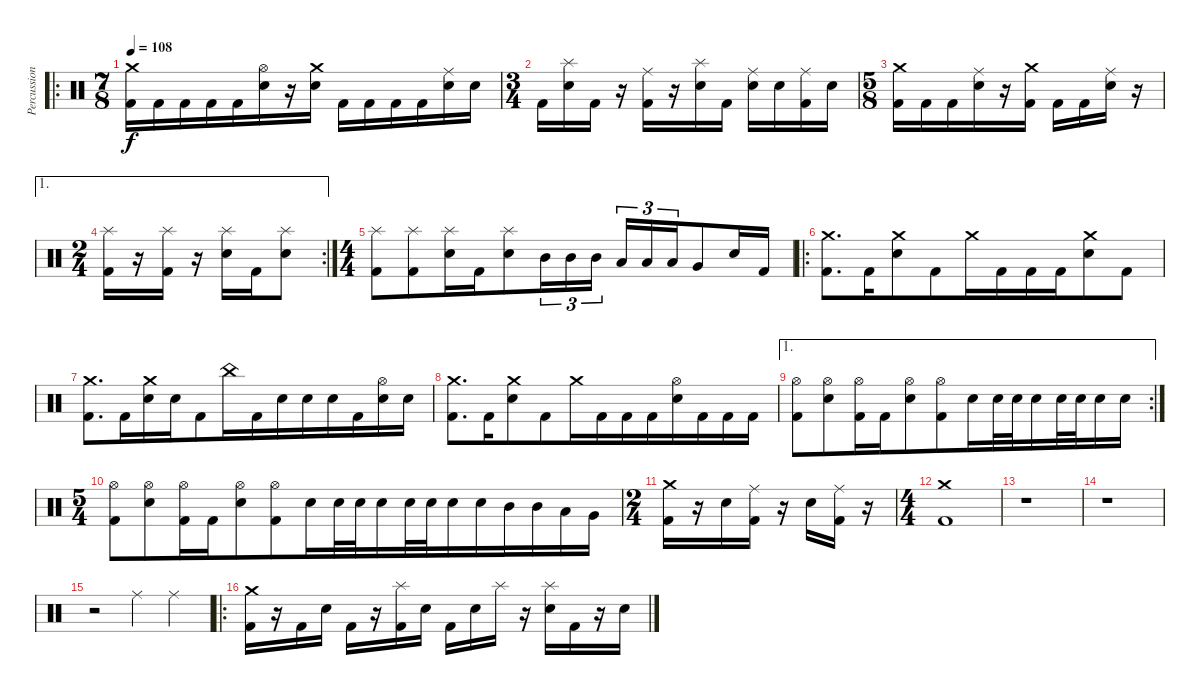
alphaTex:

\track ("Percussion" "Percussion") {instrument percussion}
\staff {score}
\articulation defaults
\ro
\ts (7 8)
\tempo 108
\clef neutral
\ks c
("Crash medium (hit)" "Kick (hit) 2").16{dy f} "Kick (hit) 2".16 "Kick (hit) 2".16 "Kick (hit) 2".16 "Kick (hit) 2".16 ("Hi-Hat (open)" "Snare (hit) 2").16 r.16 ("Crash medium (hit)" "Snare (hit) 2").16 "Kick (hit) 2".16 "Kick (hit) 2".16 "Kick (hit) 2".16 "Kick (hit) 2".16 ("Ride (middle)" "Snare (hit) 2").16 "Snare (hit) 2".16 |
\ts (3 4)
"Kick (hit) 2".16 ("Splash (hit)" "Snare (hit) 2").16 "Kick (hit) 2".16 r.16 ("Ride (middle)" "Kick (hit) 2").16 r.16 ("Splash (hit)" "Snare (hit) 2").16 "Kick (hit) 2".16 ("Ride (middle)" "Snare (hit) 2").16 "Snare (hit) 2".16 ("Ride (middle)" "Kick (hit) 2").16 "Snare (hit) 2".16 |
\ts (5 8)
("Crash medium (hit)" "Kick (hit) 2").16 "Kick (hit) 2".16 "Kick (hit) 2".16 ("Ride (middle)" "Snare (hit) 2").16 r.16 ("Crash medium (hit)" "Kick (hit) 2").16 "Kick (hit) 2".16 "Kick (hit) 2".16 ("Ride (middle)" "Snare (hit) 2").16 r.16 |
\ae 1
\rc 2
\ts (2 4)
("Splash (hit)" "Kick (hit) 2").16 r.16 ("Splash (hit)" "Kick (hit) 2").16 r.16 ("Splash (hit)" "Snare (hit) 2").16 "Kick (hit) 2".16 ("Splash (hit)" "Snare (hit) 2").8 |
\ts (4 4)
("Splash (hit)" "Kick (hit) 2").8 ("Splash (hit)" "Kick (hit) 2").8{beam merge} ("Splash (hit)" "Snare (hit) 2").16 "Kick (hit) 2".16 ("Splash (hit)" "Snare (hit) 2").8{beam merge} "Mid Tom (hit)".16{tu (3 2)} "Mid Tom (hit)".16{tu (3 2)} "Mid Tom (hit)".16{tu (3 2) beam splitsecondary} "Low Tom (hit)".16{tu (3 2)} "Low Tom (hit)".16{tu (3 2)} "Low Tom (hit)".16{tu (3 2) beam merge} "Very Low Tom (hit)".8 "Snare (hit) 2".16 "Kick (hit) 2".16 |
\ro
("Crash medium (hit)" "Kick (hit) 2").8{d} "Kick (hit) 2".16{beam merge} ("Crash medium (hit)" "Snare (hit) 2").8 "Kick (hit) 2".8{beam merge} "Crash medium (hit)".16 "Kick (hit) 2".16 "Kick (hit) 2".16 "Kick (hit) 2".16{beam merge} ("Crash medium (hit)" "Snare (hit) 2").8 "Kick (hit) 2".8 |
("Crash medium (hit)" "Kick (hit) 2").8{d} "Kick (hit) 2".16{beam merge} ("Crash medium (hit)" "Snare (hit) 2").16 "Snare (hit) 2".16 "Kick (hit) 2".8{beam merge} "China (hit)".16 "Kick (hit) 2".16 "Snare (hit) 2".16 "Snare (hit) 2".16{beam merge} "Snare (hit) 2".16 "Kick (hit) 2".16 ("Hi-Hat (open)" "Snare (hit) 2").16 "Snare (hit) 2".16 |
("Crash medium (hit)" "Kick (hit) 2").8{d} "Kick (hit) 2".16{beam merge} ("Crash medium (hit)" "Snare (hit) 2").8 "Kick (hit) 2".8{beam merge} "Crash medium (hit)".16 "Kick (hit) 2".16 "Kick (hit) 2".16 "Kick (hit) 2".16{beam merge} ("Hi-Hat (open)" "Snare (hit) 2").16 "Kick (hit) 2".16 "Kick (hit) 2".16 "Kick (hit) 2".16 |
\ae 1
\rc 2
("Hi-Hat (open)" "Kick (hit) 2").8 ("Hi-Hat (open)" "Snare (hit) 2").8{beam merge} ("Hi-Hat (open)" "Kick (hit) 2").16 "Kick (hit) 2".16 ("Hi-Hat (open)" "Snare (hit) 2").8{beam merge} ("Hi-Hat (open)" "Kick (hit) 2").8 "Snare (hit) 2".16 "Snare (hit) 2".32 "Snare (hit) 2".32{beam merge} "Snare (hit) 2".16 "Snare (hit) 2".32 "Snare (hit) 2".32 "Snare (hit) 2".16 "Snare (hit) 2".16 |
\ts (5 4)
("Hi-Hat (open)" "Kick (hit) 2").8 ("Hi-Hat (open)" "Snare (hit) 2").8{beam merge} ("Hi-Hat (open)" "Kick (hit) 2").16 "Kick (hit) 2".16 ("Hi-Hat (open)" "Snare (hit) 2").8{beam merge} ("Hi-Hat (open)" "Kick (hit) 2").8 "Snare (hit) 2".16 "Snare (hit) 2".32 "Snare (hit) 2".32{beam merge} "Snare (hit) 2".16 "Snare (hit) 2".32 "Snare (hit) 2".32 "Snare (hit) 2".16 "Snare (hit) 2".16{beam merge} "Mid Tom (hit)".16 "Mid Tom (hit)".16 "Low Tom (hit)".16 "Very Low Tom (hit)".16 |
\ts (2 4)
("Crash medium (hit)" "Kick (hit) 2").16 r.16 "Snare (hit) 2".16 ("Ride (middle)" "Kick (hit) 2").16 r.16 "Snare (hit) 2".16 ("Ride (middle)" "Kick (hit) 2").16 r.16 |
\ts (4 4)
("Crash medium (hit)" "Kick (hit) 2").1 |
r.1 |
r.1 |
r.2 "Ride (middle)".4 "Ride (middle)".4 |
\ro
("Crash medium (hit)" "Kick (hit) 2").16 r.16 "Kick (hit) 2".16 "Snare (hit) 2".16 "Kick (hit) 2".16 r.16 ("Splash (hit)" "Kick (hit) 2").16 "Snare (hit) 2".16 "Kick (hit) 2".16 "Snare (hit) 2".16 "Splash (hit)".16 r.16 ("Splash (hit)" "Snare (hit) 2").16 "Kick (hit) 2".16 r.16 "Snare (hit) 2".16
